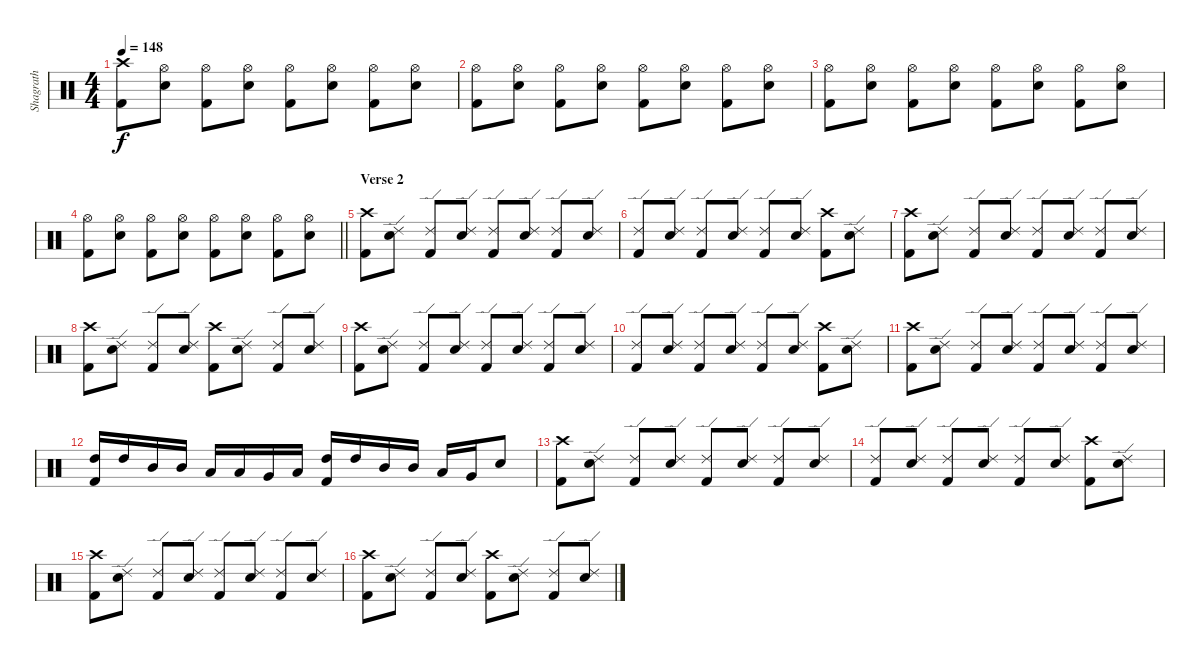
\track ("Shagrath" "Shagrath") {instrument percussion}
\staff {score}
\articulation defaults
\ts (4 4)
\tempo 148
\clef neutral
\ks c
("Crash high (hit)" "Kick (hit) 2").8{dy f} ("Hi-Hat (open)" "Electric Snare (hit)").8 ("Hi-Hat (open)" "Kick (hit) 2").8 ("Hi-Hat (open)" "Electric Snare (hit)").8 ("Hi-Hat (open)" "Kick (hit) 2").8 ("Hi-Hat (open)" "Electric Snare (hit)").8 ("Hi-Hat (open)" "Kick (hit) 2").8 ("Hi-Hat (open)" "Electric Snare (hit)").8 |
("Hi-Hat (open)" "Kick (hit) 2").8 ("Hi-Hat (open)" "Electric Snare (hit)").8 ("Hi-Hat (open)" "Kick (hit) 2").8 ("Hi-Hat (open)" "Electric Snare (hit)").8 ("Hi-Hat (open)" "Kick (hit) 2").8 ("Hi-Hat (open)" "Electric Snare (hit)").8 ("Hi-Hat (open)" "Kick (hit) 2").8 ("Hi-Hat (open)" "Electric Snare (hit)").8 |
("Hi-Hat (open)" "Kick (hit) 2").8 ("Hi-Hat (open)" "Electric Snare (hit)").8 ("Hi-Hat (open)" "Kick (hit) 2").8 ("Hi-Hat (open)" "Electric Snare (hit)").8 ("Hi-Hat (open)" "Kick (hit) 2").8 ("Hi-Hat (open)" "Electric Snare (hit)").8 ("Hi-Hat (open)" "Kick (hit) 2").8 ("Hi-Hat (open)" "Electric Snare (hit)").8 |
\barLineRight lightlight
("Hi-Hat (open)" "Kick (hit) 2").8 ("Hi-Hat (open)" "Electric Snare (hit)").8 ("Hi-Hat (open)" "Kick (hit) 2").8 ("Hi-Hat (open)" "Electric Snare (hit)").8 ("Hi-Hat (open)" "Kick (hit) 2").8 ("Hi-Hat (open)" "Electric Snare (hit)").8 ("Hi-Hat (open)" "Kick (hit) 2").8 ("Hi-Hat (open)" "Electric Snare (hit)").8 |
\section ("" "Verse 2")
("Crash high (hit)" "Kick (hit) 2").8 ("Ride (edge) 2" "Electric Snare (hit)").8 ("Ride (edge) 2" "Kick (hit) 2").8 ("Ride (edge) 2" "Electric Snare (hit)").8 ("Ride (edge) 2" "Kick (hit) 2").8 ("Ride (edge) 2" "Electric Snare (hit)").8 ("Ride (edge) 2" "Kick (hit) 2").8 ("Ride (edge) 2" "Electric Snare (hit)").8 |
("Ride (edge) 2" "Kick (hit) 2").8 ("Ride (edge) 2" "Electric Snare (hit)").8 ("Ride (edge) 2" "Kick (hit) 2").8 ("Ride (edge) 2" "Electric Snare (hit)").8 ("Ride (edge) 2" "Kick (hit) 2").8 ("Ride (edge) 2" "Electric Snare (hit)").8 ("Crash high (hit)" "Kick (hit) 2").8 ("Ride (edge) 2" "Electric Snare (hit)").8 |
("Crash high (hit)" "Kick (hit) 2").8 ("Ride (edge) 2" "Electric Snare (hit)").8 ("Ride (edge) 2" "Kick (hit) 2").8 ("Ride (edge) 2" "Electric Snare (hit)").8 ("Ride (edge) 2" "Kick (hit) 2").8 ("Ride (edge) 2" "Electric Snare (hit)").8 ("Ride (edge) 2" "Kick (hit) 2").8 ("Ride (edge) 2" "Electric Snare (hit)").8 |
("Crash high (hit)" "Kick (hit) 2").8 ("Ride (edge) 2" "Electric Snare (hit)").8 ("Ride (edge) 2" "Kick (hit) 2").8 ("Ride (edge) 2" "Electric Snare (hit)").8 ("Crash high (hit)" "Kick (hit) 2").8 ("Ride (edge) 2" "Electric Snare (hit)").8 ("Ride (edge) 2" "Kick (hit) 2").8 ("Ride (edge) 2" "Electric Snare (hit)").8 |
("Crash high (hit)" "Kick (hit) 2").8 ("Ride (edge) 2" "Electric Snare (hit)").8 ("Ride (edge) 2" "Kick (hit) 2").8 ("Ride (edge) 2" "Electric Snare (hit)").8 ("Ride (edge) 2" "Kick (hit) 2").8 ("Ride (edge) 2" "Electric Snare (hit)").8 ("Ride (edge) 2" "Kick (hit) 2").8 ("Ride (edge) 2" "Electric Snare (hit)").8 |
("Ride (edge) 2" "Kick (hit) 2").8 ("Ride (edge) 2" "Electric Snare (hit)").8 ("Ride (edge) 2" "Kick (hit) 2").8 ("Ride (edge) 2" "Electric Snare (hit)").8 ("Ride (edge) 2" "Kick (hit) 2").8 ("Ride (edge) 2" "Electric Snare (hit)").8 ("Crash high (hit)" "Kick (hit) 2").8 ("Ride (edge) 2" "Electric Snare (hit)").8 |
("Crash high (hit)" "Kick (hit) 2").8 ("Ride (edge) 2" "Electric Snare (hit)").8 ("Ride (edge) 2" "Kick (hit) 2").8 ("Ride (edge) 2" "Electric Snare (hit)").8 ("Ride (edge) 2" "Kick (hit) 2").8 ("Ride (edge) 2" "Electric Snare (hit)").8 ("Ride (edge) 2" "Kick (hit) 2").8 ("Ride (edge) 2" "Electric Snare (hit)").8 |
("High Tom (hit)" "Kick (hit) 2").16 "High Tom (hit)".16 "Mid Tom (hit)".16 "Mid Tom (hit)".16 "Low Tom (hit)".16 "Low Tom (hit)".16 "Very Low Tom (hit)".16 "Low Floor Tom (hit)".16 ("High Tom (hit)" "Kick (hit) 2").16 "High Tom (hit)".16 "Mid Tom (hit)".16 "Mid Tom (hit)".16 "Low Tom (hit)".16 "Very Low Tom (hit)".16 "Electric Snare (hit)".8 |
("Crash high (hit)" "Kick (hit) 2").8 ("Ride (edge) 2" "Electric Snare (hit)").8 ("Ride (edge) 2" "Kick (hit) 2").8 ("Ride (edge) 2" "Electric Snare (hit)").8 ("Ride (edge) 2" "Kick (hit) 2").8 ("Ride (edge) 2" "Electric Snare (hit)").8 ("Ride (edge) 2" "Kick (hit) 2").8 ("Ride (edge) 2" "Electric Snare (hit)").8 |
("Ride (edge) 2" "Kick (hit) 2").8 ("Ride (edge) 2" "Electric Snare (hit)").8 ("Ride (edge) 2" "Kick (hit) 2").8 ("Ride (edge) 2" "Electric Snare (hit)").8 ("Ride (edge) 2" "Kick (hit) 2").8 ("Ride (edge) 2" "Electric Snare (hit)").8 ("Crash high (hit)" "Kick (hit) 2").8 ("Ride (edge) 2" "Electric Snare (hit)").8 |
("Crash high (hit)" "Kick (hit) 2").8 ("Ride (edge) 2" "Electric Snare (hit)").8 ("Ride (edge) 2" "Kick (hit) 2").8 ("Ride (edge) 2" "Electric Snare (hit)").8 ("Ride (edge) 2" "Kick (hit) 2").8 ("Ride (edge) 2" "Electric Snare (hit)").8 ("Ride (edge) 2" "Kick (hit) 2").8 ("Ride (edge) 2" "Electric Snare (hit)").8 |
("Crash high (hit)" "Kick (hit) 2").8 ("Ride (edge) 2" "Electric Snare (hit)").8 ("Ride (edge) 2" "Kick (hit) 2").8 ("Ride (edge) 2" "Electric Snare (hit)").8 ("Crash high (hit)" "Kick (hit) 2").8 ("Ride (edge) 2" "Electric Snare (hit)").8 ("Ride (edge) 2" "Kick (hit) 2").8 ("Ride (edge) 2" "Electric Snare (hit)").8
